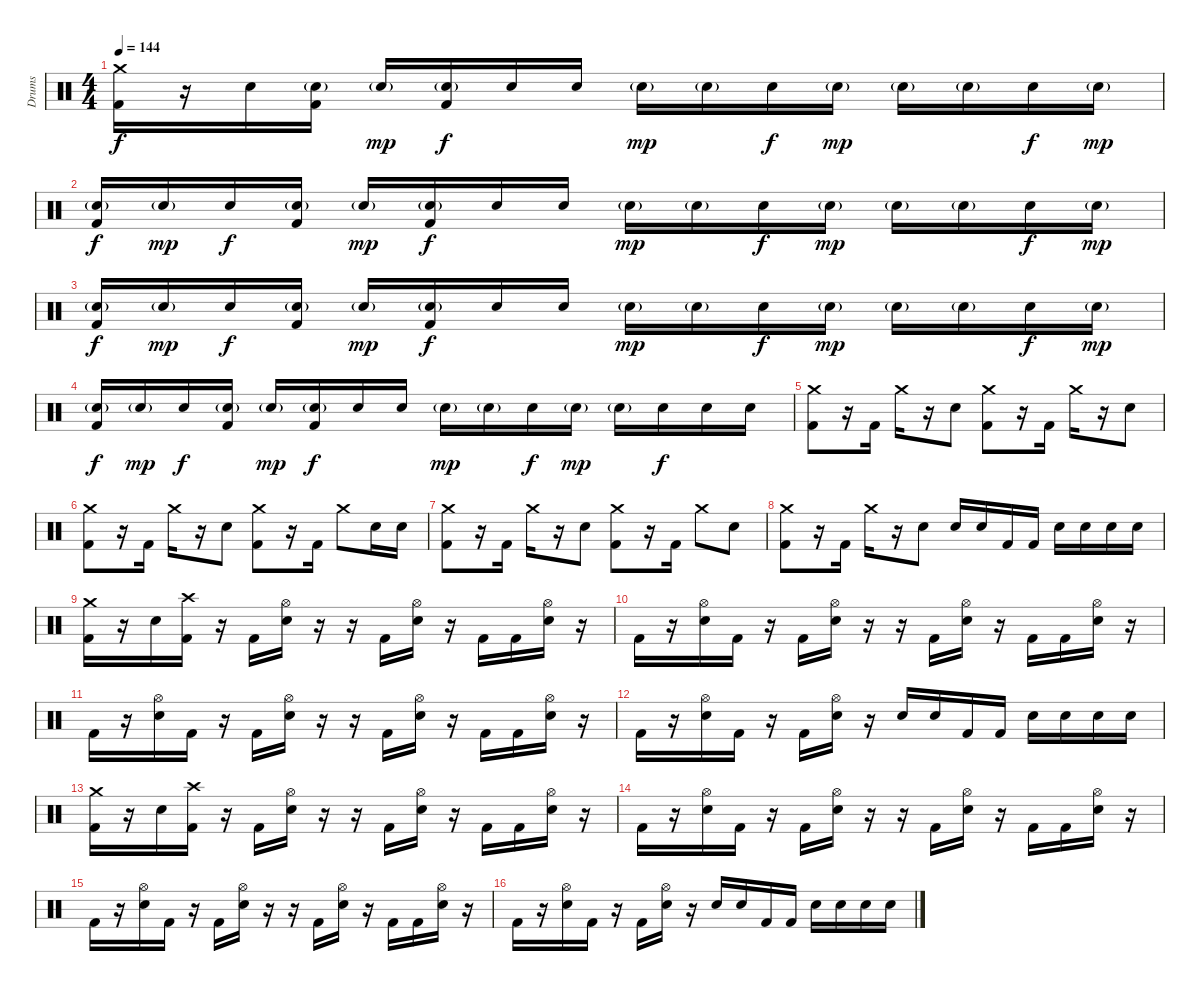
\track ("Drums" "Drums") {instrument percussion}
\staff {score}
\articulation defaults
\ts (4 4)
\tempo 144
\clef neutral
\ks c
("Crash medium (hit)" "Kick (hit) 2").16{dy f} r.16 "Electric Snare (hit)".16 ("Snare (hit) 2"{g} "Kick (hit) 2").16 "Snare (hit) 2"{g}.16{dy mp} ("Snare (hit) 2"{g} "Kick (hit) 2").16{dy f} "Electric Snare (hit)".16 "Electric Snare (hit)".16 "Snare (hit) 2"{g}.16{dy mp} "Snare (hit) 2"{g}.16 "Electric Snare (hit)".16{dy f} "Snare (hit) 2"{g}.16{dy mp} "Snare (hit) 2"{g}.16 "Snare (hit) 2"{g}.16 "Electric Snare (hit)".16{dy f} "Snare (hit) 2"{g}.16{dy mp} |
("Snare (hit) 2"{g} "Kick (hit) 2").16{dy f} "Snare (hit) 2"{g}.16{dy mp} "Electric Snare (hit)".16{dy f} ("Snare (hit) 2"{g} "Kick (hit) 2").16 "Snare (hit) 2"{g}.16{dy mp} ("Snare (hit) 2"{g} "Kick (hit) 2").16{dy f} "Electric Snare (hit)".16 "Electric Snare (hit)".16 "Snare (hit) 2"{g}.16{dy mp} "Snare (hit) 2"{g}.16 "Electric Snare (hit)".16{dy f} "Snare (hit) 2"{g}.16{dy mp} "Snare (hit) 2"{g}.16 "Snare (hit) 2"{g}.16 "Electric Snare (hit)".16{dy f} "Snare (hit) 2"{g}.16{dy mp} |
("Snare (hit) 2"{g} "Kick (hit) 2").16{dy f} "Snare (hit) 2"{g}.16{dy mp} "Electric Snare (hit)".16{dy f} ("Snare (hit) 2"{g} "Kick (hit) 2").16 "Snare (hit) 2"{g}.16{dy mp} ("Snare (hit) 2"{g} "Kick (hit) 2").16{dy f} "Electric Snare (hit)".16 "Electric Snare (hit)".16 "Snare (hit) 2"{g}.16{dy mp} "Snare (hit) 2"{g}.16 "Electric Snare (hit)".16{dy f} "Snare (hit) 2"{g}.16{dy mp} "Snare (hit) 2"{g}.16 "Snare (hit) 2"{g}.16 "Electric Snare (hit)".16{dy f} "Snare (hit) 2"{g}.16{dy mp} |
("Snare (hit) 2"{g} "Kick (hit) 2").16{dy f} "Snare (hit) 2"{g}.16{dy mp} "Electric Snare (hit)".16{dy f} ("Snare (hit) 2"{g} "Kick (hit) 2").16 "Snare (hit) 2"{g}.16{dy mp} ("Snare (hit) 2"{g} "Kick (hit) 2").16{dy f} "Electric Snare (hit)".16 "Electric Snare (hit)".16 "Snare (hit) 2"{g}.16{dy mp} "Snare (hit) 2"{g}.16 "Electric Snare (hit)".16{dy f} "Snare (hit) 2"{g}.16{dy mp} "Snare (hit) 2"{g}.16 "Electric Snare (hit)".16{dy f} "Electric Snare (hit)".16 "Electric Snare (hit)".16 |
("Crash medium (hit)" "Kick (hit) 2").8 r.16 "Kick (hit) 2".16 "Crash medium (hit)".16 r.16 "Electric Snare (hit)".8 ("Crash medium (hit)" "Kick (hit) 2").8 r.16 "Kick (hit) 2".16 "Crash medium (hit)".16 r.16 "Electric Snare (hit)".8 |
("Crash medium (hit)" "Kick (hit) 2").8 r.16 "Kick (hit) 2".16 "Crash medium (hit)".16 r.16 "Electric Snare (hit)".8 ("Crash medium (hit)" "Kick (hit) 2").8 r.16 "Kick (hit) 2".16 "Crash medium (hit)".8 "Electric Snare (hit)".16 "Electric Snare (hit)".16 |
("Crash medium (hit)" "Kick (hit) 2").8 r.16 "Kick (hit) 2".16 "Crash medium (hit)".16 r.16 "Electric Snare (hit)".8 ("Crash medium (hit)" "Kick (hit) 2").8 r.16 "Kick (hit) 2".16 "Crash medium (hit)".8 "Electric Snare (hit)".8 |
("Crash medium (hit)" "Kick (hit) 2").8 r.16 "Kick (hit) 2".16 "Crash medium (hit)".16 r.16 "Electric Snare (hit)".8 "Electric Snare (hit)".16 "Electric Snare (hit)".16 "Kick (hit) 2".16 "Kick (hit) 2".16 "Electric Snare (hit)".16 "Electric Snare (hit)".16 "Electric Snare (hit)".16 "Electric Snare (hit)".16 |
("Crash medium (hit)" "Kick (hit) 2").16 r.16 "Electric Snare (hit)".16 ("Crash high (hit)" "Kick (hit) 2").16 r.16 "Kick (hit) 2".16 ("Hi-Hat (open)" "Electric Snare (hit)").16 r.16 r.16 "Kick (hit) 2".16 ("Hi-Hat (open)" "Electric Snare (hit)").16 r.16 "Kick (hit) 2".16 "Kick (hit) 2".16 ("Hi-Hat (open)" "Electric Snare (hit)").16 r.16 |
"Kick (hit) 2".16 r.16 ("Hi-Hat (open)" "Electric Snare (hit)").16 "Kick (hit) 2".16 r.16 "Kick (hit) 2".16 ("Hi-Hat (open)" "Electric Snare (hit)").16 r.16 r.16 "Kick (hit) 2".16 ("Hi-Hat (open)" "Electric Snare (hit)").16 r.16 "Kick (hit) 2".16 "Kick (hit) 2".16 ("Hi-Hat (open)" "Electric Snare (hit)").16 r.16 |
"Kick (hit) 2".16 r.16 ("Hi-Hat (open)" "Electric Snare (hit)").16 "Kick (hit) 2".16 r.16 "Kick (hit) 2".16 ("Hi-Hat (open)" "Electric Snare (hit)").16 r.16 r.16 "Kick (hit) 2".16 ("Hi-Hat (open)" "Electric Snare (hit)").16 r.16 "Kick (hit) 2".16 "Kick (hit) 2".16 ("Hi-Hat (open)" "Electric Snare (hit)").16 r.16 |
"Kick (hit) 2".16 r.16 ("Hi-Hat (open)" "Electric Snare (hit)").16 "Kick (hit) 2".16 r.16 "Kick (hit) 2".16 ("Hi-Hat (open)" "Electric Snare (hit)").16 r.16 "Electric Snare (hit)".16 "Electric Snare (hit)".16 "Kick (hit) 2".16 "Kick (hit) 2".16 "Electric Snare (hit)".16 "Electric Snare (hit)".16 "Electric Snare (hit)".16 "Electric Snare (hit)".16 |
("Crash medium (hit)" "Kick (hit) 2").16 r.16 "Electric Snare (hit)".16 ("Crash high (hit)" "Kick (hit) 2").16 r.16 "Kick (hit) 2".16 ("Hi-Hat (open)" "Electric Snare (hit)").16 r.16 r.16 "Kick (hit) 2".16 ("Hi-Hat (open)" "Electric Snare (hit)").16 r.16 "Kick (hit) 2".16 "Kick (hit) 2".16 ("Hi-Hat (open)" "Electric Snare (hit)").16 r.16 |
"Kick (hit) 2".16 r.16 ("Hi-Hat (open)" "Electric Snare (hit)").16 "Kick (hit) 2".16 r.16 "Kick (hit) 2".16 ("Hi-Hat (open)" "Electric Snare (hit)").16 r.16 r.16 "Kick (hit) 2".16 ("Hi-Hat (open)" "Electric Snare (hit)").16 r.16 "Kick (hit) 2".16 "Kick (hit) 2".16 ("Hi-Hat (open)" "Electric Snare (hit)").16 r.16 |
"Kick (hit) 2".16 r.16 ("Hi-Hat (open)" "Electric Snare (hit)").16 "Kick (hit) 2".16 r.16 "Kick (hit) 2".16 ("Hi-Hat (open)" "Electric Snare (hit)").16 r.16 r.16 "Kick (hit) 2".16 ("Hi-Hat (open)" "Electric Snare (hit)").16 r.16 "Kick (hit) 2".16 "Kick (hit) 2".16 ("Hi-Hat (open)" "Electric Snare (hit)").16 r.16 |
"Kick (hit) 2".16 r.16 ("Hi-Hat (open)" "Electric Snare (hit)").16 "Kick (hit) 2".16 r.16 "Kick (hit) 2".16 ("Hi-Hat (open)" "Electric Snare (hit)").16 r.16 "Electric Snare (hit)".16 "Electric Snare (hit)".16 "Kick (hit) 2".16 "Kick (hit) 2".16 "Electric Snare (hit)".16 "Electric Snare (hit)".16 "Electric Snare (hit)".16 "Electric Snare (hit)".16
